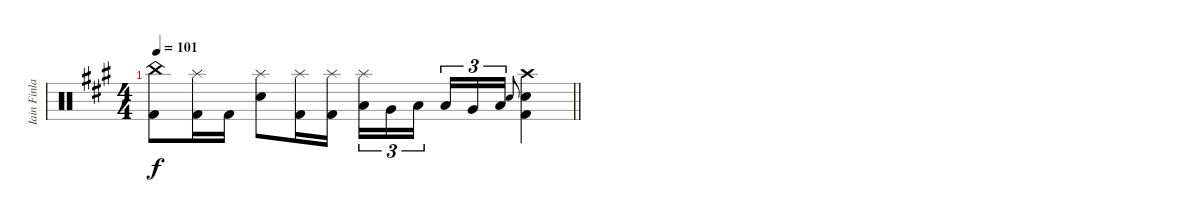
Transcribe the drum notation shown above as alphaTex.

\track ("Iain Finlay" "Iain Finla") {instrument percussion}
\staff {score}
\articulation defaults
\ts (4 4)
\tempo 101
\clef neutral
\barLineRight lightlight
\ks f#minor
("China (hit)" "Kick (hit) 2").8{dy f} ("Splash (hit)" "Kick (hit) 2").16 "Kick (hit) 2".16 ("Splash (hit)" "Snare (hit) 2").8 ("Splash (hit)" "Kick (hit) 2").16 ("Splash (hit)" "Kick (hit) 2").16 ("Splash (hit)" "Low Tom (hit)").16{tu (3 2)} "Very Low Tom (hit)".16{tu (3 2)} "Low Floor Tom (hit)".16{tu (3 2) beam splitsecondary} "Low Floor Tom (hit)".16{tu (3 2)} "Very Low Tom (hit)".16{tu (3 2)} "Low Tom (hit)".16{tu (3 2)} "Snare (hit) 2".8{gr onbeat} ("Crash high (hit)" "Snare (hit) 2" "Kick (hit) 2").4
